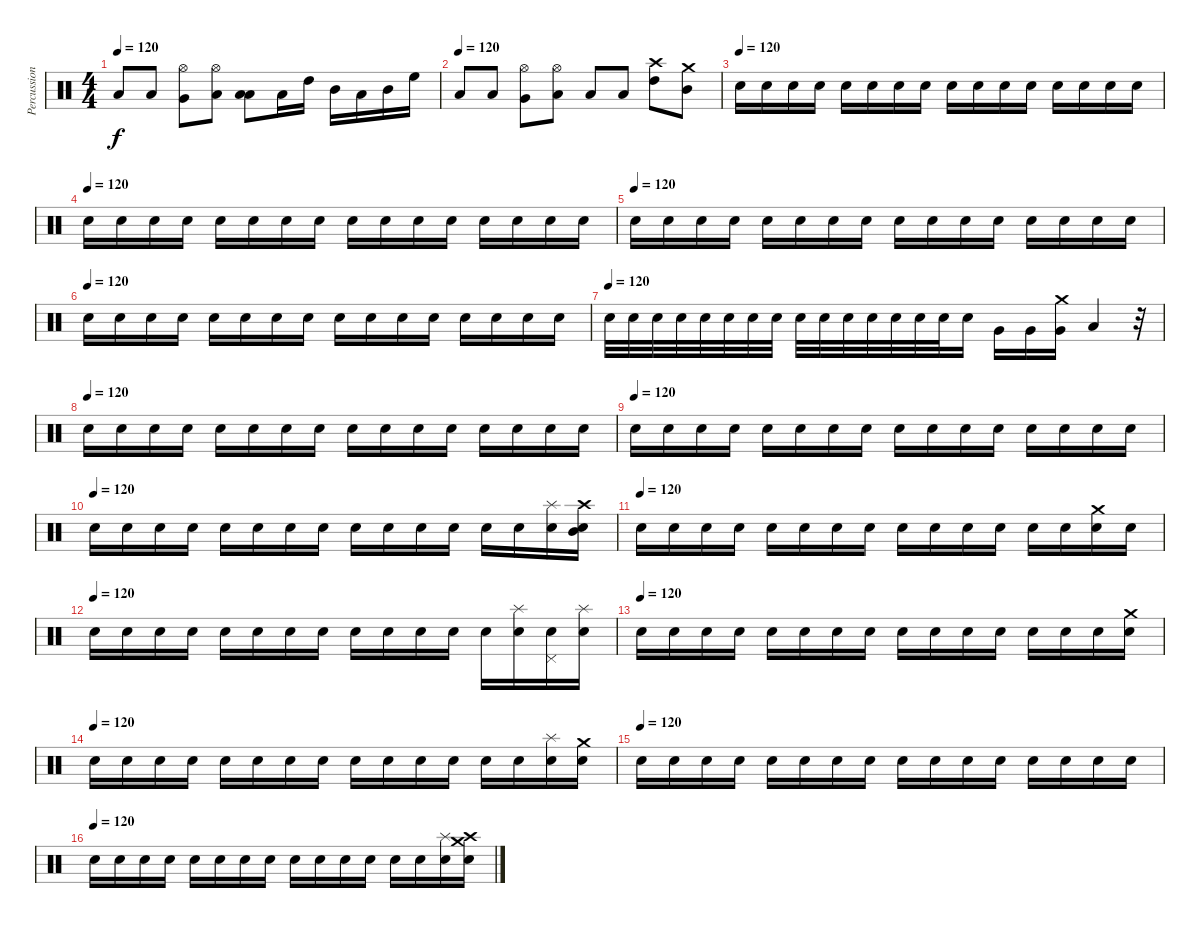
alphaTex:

\track ("Percussion" "Percussion") {instrument percussion}
\staff {score}
\articulation defaults
\ts (4 4)
\tempo 120
\clef neutral
\ks c "Low Floor Tom (hit)".8{dy f} "Low Floor Tom (hit)".8
("Very Low Tom (hit)" "Hi-Hat (open)").8 ("Low Tom (hit)" "Hi-Hat (open)").8 ("Low Floor Tom (hit)" "Low Tom (hit)").8 "Low Floor Tom (hit)".16 "High Tom (hit)".16 "Mid Tom (hit)".16 "Low Tom (hit)".16 "Mid Tom (hit)".16 "High Floor Tom (hit)".16 |
\tempo (120)
"Low Floor Tom (hit)".8 "Low Floor Tom (hit)".8 ("Very Low Tom (hit)" "Hi-Hat (open)").8 ("Low Tom (hit)" "Hi-Hat (open)").8 "Low Floor Tom (hit)".8 "Low Floor Tom (hit)".8 ("High Tom (hit)" "Crash high (hit)").8 ("Mid Tom (hit)" "Crash medium (hit)").8 |
\tempo (120)
"Snare (hit) 2".16 "Electric Snare (hit)".16 "Snare (hit) 2".16 "Electric Snare (hit)".16 "Snare (hit) 2".16 "Electric Snare (hit)".16 "Snare (hit) 2".16 "Snare (hit) 2".16 "Electric Snare (hit)".16 "Snare (hit) 2".16 "Electric Snare (hit)".16 "Snare (hit) 2".16 "Electric Snare (hit)".16 "Snare (hit) 2".16 "Electric Snare (hit)".16 "Snare (hit) 2".16 |
\tempo (120)
"Snare (hit) 2".16 "Electric Snare (hit)".16 "Snare (hit) 2".16 "Electric Snare (hit)".16 "Snare (hit) 2".16 "Electric Snare (hit)".16 "Snare (hit) 2".16 "Snare (hit) 2".16 "Electric Snare (hit)".16 "Snare (hit) 2".16 "Electric Snare (hit)".16 "Snare (hit) 2".16 "Electric Snare (hit)".16 "Snare (hit) 2".16 "Electric Snare (hit)".16 "Snare (hit) 2".16 |
\tempo (120)
"Snare (hit) 2".16 "Electric Snare (hit)".16 "Snare (hit) 2".16 "Electric Snare (hit)".16 "Snare (hit) 2".16 "Electric Snare (hit)".16 "Snare (hit) 2".16 "Snare (hit) 2".16 "Electric Snare (hit)".16 "Snare (hit) 2".16 "Electric Snare (hit)".16 "Snare (hit) 2".16 "Electric Snare (hit)".16 "Snare (hit) 2".16 "Electric Snare (hit)".16 "Snare (hit) 2".16 |
\tempo (120)
"Snare (hit) 2".16 "Electric Snare (hit)".16 "Snare (hit) 2".16 "Electric Snare (hit)".16 "Snare (hit) 2".16 "Electric Snare (hit)".16 "Snare (hit) 2".16 "Snare (hit) 2".16 "Electric Snare (hit)".16 "Snare (hit) 2".16 "Electric Snare (hit)".16 "Snare (hit) 2".16 "Electric Snare (hit)".16 "Snare (hit) 2".16 "Electric Snare (hit)".16 "Snare (hit) 2".16 |
\tempo (120)
"Snare (hit) 2".32 "Snare (hit) 2".32 "Snare (hit) 2".32 "Snare (hit) 2".32 "Snare (hit) 2".32 "Snare (hit) 2".32 "Snare (hit) 2".32 "Snare (hit) 2".32 "Snare (hit) 2".32 "Snare (hit) 2".32 "Snare (hit) 2".32 "Snare (hit) 2".32 "Snare (hit) 2".32 "Snare (hit) 2".32 "Electric Snare (hit)".32 "Snare (hit) 2".16 "Very Low Tom (hit)".16 "Very Low Tom (hit)".16 ("Very Low Tom (hit)" "Crash medium (hit)").16 "Low Tom (hit)".4 r.32 |
\tempo (120)
"Snare (hit) 2".16 "Electric Snare (hit)".16 "Snare (hit) 2".16 "Electric Snare (hit)".16 "Snare (hit) 2".16 "Electric Snare (hit)".16 "Snare (hit) 2".16 "Snare (hit) 2".16 "Electric Snare (hit)".16 "Snare (hit) 2".16 "Electric Snare (hit)".16 "Snare (hit) 2".16 "Electric Snare (hit)".16 "Snare (hit) 2".16 "Electric Snare (hit)".16 "Snare (hit) 2".16 |
\tempo (120)
"Snare (hit) 2".16 "Electric Snare (hit)".16 "Snare (hit) 2".16 "Electric Snare (hit)".16 "Snare (hit) 2".16 "Electric Snare (hit)".16 "Snare (hit) 2".16 "Snare (hit) 2".16 "Electric Snare (hit)".16 "Snare (hit) 2".16 "Electric Snare (hit)".16 "Snare (hit) 2".16 "Electric Snare (hit)".16 "Snare (hit) 2".16 "Electric Snare (hit)".16 "Snare (hit) 2".16 |
\tempo (120)
"Snare (hit) 2".16 "Electric Snare (hit)".16 "Snare (hit) 2".16 "Electric Snare (hit)".16 "Snare (hit) 2".16 "Electric Snare (hit)".16 "Snare (hit) 2".16 "Snare (hit) 2".16 "Electric Snare (hit)".16 "Snare (hit) 2".16 "Electric Snare (hit)".16 "Snare (hit) 2".16 "Electric Snare (hit)".16 "Snare (hit) 2".16 ("Electric Snare (hit)" "Splash (hit)").16 ("Snare (hit) 2" "Crash high (hit)" "Mid Tom (hit)").16 |
\tempo (120)
"Snare (hit) 2".16 "Electric Snare (hit)".16 "Snare (hit) 2".16 "Electric Snare (hit)".16 "Snare (hit) 2".16 "Electric Snare (hit)".16 "Snare (hit) 2".16 "Snare (hit) 2".16 "Electric Snare (hit)".16 "Snare (hit) 2".16 "Electric Snare (hit)".16 "Snare (hit) 2".16 "Electric Snare (hit)".16 "Snare (hit) 2".16 ("Electric Snare (hit)" "Crash medium (hit)").16 "Snare (hit) 2".16 |
\tempo (120)
"Snare (hit) 2".16 "Electric Snare (hit)".16 "Snare (hit) 2".16 "Electric Snare (hit)".16 "Snare (hit) 2".16 "Electric Snare (hit)".16 "Snare (hit) 2".16 "Snare (hit) 2".16 "Electric Snare (hit)".16 "Snare (hit) 2".16 "Electric Snare (hit)".16 "Snare (hit) 2".16 "Electric Snare (hit)".16 ("Snare (hit) 2" "Splash (hit)").16 ("Electric Snare (hit)" "Pedal Hi-Hat (hit)").16 ("Snare (hit) 2" "Splash (hit)").16 |
\tempo (120)
"Snare (hit) 2".16 "Electric Snare (hit)".16 "Snare (hit) 2".16 "Electric Snare (hit)".16 "Snare (hit) 2".16 "Electric Snare (hit)".16 "Snare (hit) 2".16 "Snare (hit) 2".16 "Electric Snare (hit)".16 "Snare (hit) 2".16 "Electric Snare (hit)".16 "Snare (hit) 2".16 "Electric Snare (hit)".16 "Snare (hit) 2".16 "Electric Snare (hit)".16 ("Snare (hit) 2" "Crash medium (hit)").16 |
\tempo (120)
"Snare (hit) 2".16 "Electric Snare (hit)".16 "Snare (hit) 2".16 "Electric Snare (hit)".16 "Snare (hit) 2".16 "Electric Snare (hit)".16 "Snare (hit) 2".16 "Snare (hit) 2".16 "Electric Snare (hit)".16 "Snare (hit) 2".16 "Electric Snare (hit)".16 "Snare (hit) 2".16 "Electric Snare (hit)".16 "Snare (hit) 2".16 ("Electric Snare (hit)" "Splash (hit)").16 ("Snare (hit) 2" "Crash medium (hit)").16 |
\tempo (120)
"Snare (hit) 2".16 "Electric Snare (hit)".16 "Snare (hit) 2".16 "Electric Snare (hit)".16 "Snare (hit) 2".16 "Electric Snare (hit)".16 "Snare (hit) 2".16 "Snare (hit) 2".16 "Electric Snare (hit)".16 "Snare (hit) 2".16 "Electric Snare (hit)".16 "Snare (hit) 2".16 "Electric Snare (hit)".16 "Snare (hit) 2".16 "Electric Snare (hit)".16 "Snare (hit) 2".16 |
\tempo (120)
"Snare (hit) 2".16 "Electric Snare (hit)".16 "Snare (hit) 2".16 "Electric Snare (hit)".16 "Snare (hit) 2".16 "Electric Snare (hit)".16 "Snare (hit) 2".16 "Snare (hit) 2".16 "Electric Snare (hit)".16 "Snare (hit) 2".16 "Electric Snare (hit)".16 "Snare (hit) 2".16 "Electric Snare (hit)".16 "Snare (hit) 2".16 ("Electric Snare (hit)" "Splash (hit)").16 ("Snare (hit) 2" "Crash high (hit)" "Crash medium (hit)").16
